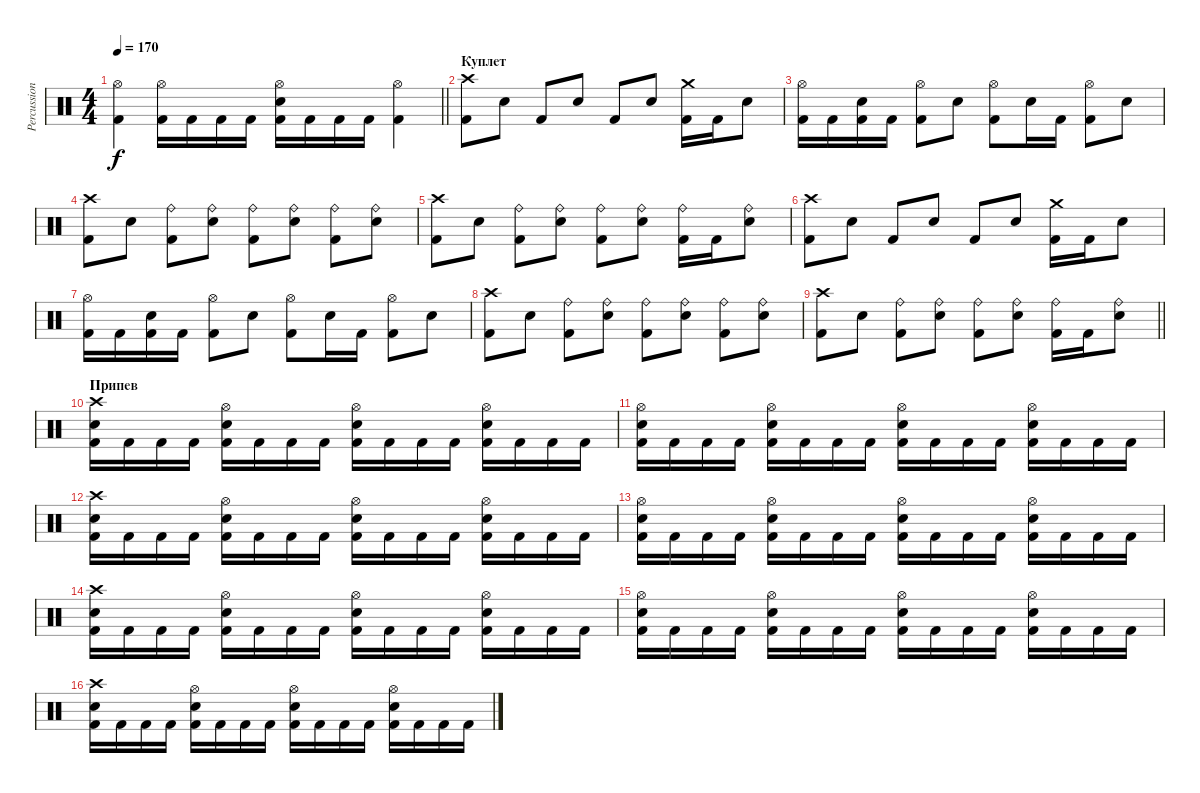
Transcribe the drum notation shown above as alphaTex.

\track ("Percussion" "Percussion") {instrument percussion}
\staff {score}
\articulation defaults
\ts (4 4)
\tempo 170
\clef neutral
\barLineRight lightlight
\ks c
("Hi-Hat (open)" "Kick (hit) 2").4{dy f} ("Hi-Hat (open)" "Kick (hit) 2").16 "Kick (hit) 2".16 "Kick (hit) 2".16 "Kick (hit) 2".16 ("Hi-Hat (open)" "Snare (hit) 2" "Kick (hit) 2").16 "Kick (hit) 2".16 "Kick (hit) 2".16 "Kick (hit) 2".16 ("Hi-Hat (open)" "Kick (hit) 2").4 |
\section ("" "Куплет")
("Crash high (hit)" "Kick (hit) 2").8 "Snare (hit) 2".8 "Kick (hit) 2".8 "Snare (hit) 2".8 "Kick (hit) 2".8 "Snare (hit) 2".8 ("Crash medium (hit)" "Kick (hit) 2").16 "Kick (hit) 2".16 "Snare (hit) 2".8 |
("Hi-Hat (open)" "Kick (hit) 2").16 "Kick (hit) 2".16 ("Snare (hit) 2" "Kick (hit) 2").16 "Kick (hit) 2".16 ("Hi-Hat (open)" "Kick (hit) 2").8 "Snare (hit) 2".8 ("Hi-Hat (open)" "Kick (hit) 2").8 "Snare (hit) 2".16 "Kick (hit) 2".16 ("Hi-Hat (open)" "Kick (hit) 2").8 "Snare (hit) 2".8 |
("Crash high (hit)" "Kick (hit) 2").8 "Snare (hit) 2".8 ("Ride (bell)" "Kick (hit) 2").8 ("Ride (bell)" "Snare (hit) 2").8 ("Ride (bell)" "Kick (hit) 2").8 ("Ride (bell)" "Snare (hit) 2").8 ("Ride (bell)" "Kick (hit) 2").8 ("Ride (bell)" "Snare (hit) 2").8 |
("Crash high (hit)" "Kick (hit) 2").8 "Snare (hit) 2".8 ("Ride (bell)" "Kick (hit) 2").8 ("Ride (bell)" "Snare (hit) 2").8 ("Ride (bell)" "Kick (hit) 2").8 ("Ride (bell)" "Snare (hit) 2").8 ("Ride (bell)" "Kick (hit) 2").16 "Kick (hit) 2".16 ("Ride (bell)" "Snare (hit) 2").8 |
("Crash high (hit)" "Kick (hit) 2").8 "Snare (hit) 2".8 "Kick (hit) 2".8 "Snare (hit) 2".8 "Kick (hit) 2".8 "Snare (hit) 2".8 ("Crash medium (hit)" "Kick (hit) 2").16 "Kick (hit) 2".16 "Snare (hit) 2".8 |
("Hi-Hat (open)" "Kick (hit) 2").16 "Kick (hit) 2".16 ("Snare (hit) 2" "Kick (hit) 2").16 "Kick (hit) 2".16 ("Hi-Hat (open)" "Kick (hit) 2").8 "Snare (hit) 2".8 ("Hi-Hat (open)" "Kick (hit) 2").8 "Snare (hit) 2".16 "Kick (hit) 2".16 ("Hi-Hat (open)" "Kick (hit) 2").8 "Snare (hit) 2".8 |
("Crash high (hit)" "Kick (hit) 2").8 "Snare (hit) 2".8 ("Ride (bell)" "Kick (hit) 2").8 ("Ride (bell)" "Snare (hit) 2").8 ("Ride (bell)" "Kick (hit) 2").8 ("Ride (bell)" "Snare (hit) 2").8 ("Ride (bell)" "Kick (hit) 2").8 ("Ride (bell)" "Snare (hit) 2").8 |
\barLineRight lightlight
("Crash high (hit)" "Kick (hit) 2").8 "Snare (hit) 2".8 ("Ride (bell)" "Kick (hit) 2").8 ("Ride (bell)" "Snare (hit) 2").8 ("Ride (bell)" "Kick (hit) 2").8 ("Ride (bell)" "Snare (hit) 2").8 ("Ride (bell)" "Kick (hit) 2").16 "Kick (hit) 2".16 ("Ride (bell)" "Snare (hit) 2").8 |
\section ("" "Припев")
("Crash high (hit)" "Snare (hit) 2" "Kick (hit) 2").16 "Kick (hit) 2".16 "Kick (hit) 2".16 "Kick (hit) 2".16 ("Hi-Hat (open)" "Snare (hit) 2" "Kick (hit) 2").16 "Kick (hit) 2".16 "Kick (hit) 2".16 "Kick (hit) 2".16 ("Hi-Hat (open)" "Snare (hit) 2" "Kick (hit) 2").16 "Kick (hit) 2".16 "Kick (hit) 2".16 "Kick (hit) 2".16 ("Hi-Hat (open)" "Snare (hit) 2" "Kick (hit) 2").16 "Kick (hit) 2".16 "Kick (hit) 2".16 "Kick (hit) 2".16 |
("Hi-Hat (open)" "Snare (hit) 2" "Kick (hit) 2").16 "Kick (hit) 2".16 "Kick (hit) 2".16 "Kick (hit) 2".16 ("Hi-Hat (open)" "Snare (hit) 2" "Kick (hit) 2").16 "Kick (hit) 2".16 "Kick (hit) 2".16 "Kick (hit) 2".16 ("Hi-Hat (open)" "Snare (hit) 2" "Kick (hit) 2").16 "Kick (hit) 2".16 "Kick (hit) 2".16 "Kick (hit) 2".16 ("Hi-Hat (open)" "Snare (hit) 2" "Kick (hit) 2").16 "Kick (hit) 2".16 "Kick (hit) 2".16 "Kick (hit) 2".16 |
("Crash high (hit)" "Snare (hit) 2" "Kick (hit) 2").16 "Kick (hit) 2".16 "Kick (hit) 2".16 "Kick (hit) 2".16 ("Hi-Hat (open)" "Snare (hit) 2" "Kick (hit) 2").16 "Kick (hit) 2".16 "Kick (hit) 2".16 "Kick (hit) 2".16 ("Hi-Hat (open)" "Snare (hit) 2" "Kick (hit) 2").16 "Kick (hit) 2".16 "Kick (hit) 2".16 "Kick (hit) 2".16 ("Hi-Hat (open)" "Snare (hit) 2" "Kick (hit) 2").16 "Kick (hit) 2".16 "Kick (hit) 2".16 "Kick (hit) 2".16 |
("Hi-Hat (open)" "Snare (hit) 2" "Kick (hit) 2").16 "Kick (hit) 2".16 "Kick (hit) 2".16 "Kick (hit) 2".16 ("Hi-Hat (open)" "Snare (hit) 2" "Kick (hit) 2").16 "Kick (hit) 2".16 "Kick (hit) 2".16 "Kick (hit) 2".16 ("Hi-Hat (open)" "Snare (hit) 2" "Kick (hit) 2").16 "Kick (hit) 2".16 "Kick (hit) 2".16 "Kick (hit) 2".16 ("Hi-Hat (open)" "Snare (hit) 2" "Kick (hit) 2").16 "Kick (hit) 2".16 "Kick (hit) 2".16 "Kick (hit) 2".16 |
("Crash high (hit)" "Snare (hit) 2" "Kick (hit) 2").16 "Kick (hit) 2".16 "Kick (hit) 2".16 "Kick (hit) 2".16 ("Hi-Hat (open)" "Snare (hit) 2" "Kick (hit) 2").16 "Kick (hit) 2".16 "Kick (hit) 2".16 "Kick (hit) 2".16 ("Hi-Hat (open)" "Snare (hit) 2" "Kick (hit) 2").16 "Kick (hit) 2".16 "Kick (hit) 2".16 "Kick (hit) 2".16 ("Hi-Hat (open)" "Snare (hit) 2" "Kick (hit) 2").16 "Kick (hit) 2".16 "Kick (hit) 2".16 "Kick (hit) 2".16 |
("Hi-Hat (open)" "Snare (hit) 2" "Kick (hit) 2").16 "Kick (hit) 2".16 "Kick (hit) 2".16 "Kick (hit) 2".16 ("Hi-Hat (open)" "Snare (hit) 2" "Kick (hit) 2").16 "Kick (hit) 2".16 "Kick (hit) 2".16 "Kick (hit) 2".16 ("Hi-Hat (open)" "Snare (hit) 2" "Kick (hit) 2").16 "Kick (hit) 2".16 "Kick (hit) 2".16 "Kick (hit) 2".16 ("Hi-Hat (open)" "Snare (hit) 2" "Kick (hit) 2").16 "Kick (hit) 2".16 "Kick (hit) 2".16 "Kick (hit) 2".16 |
("Crash high (hit)" "Snare (hit) 2" "Kick (hit) 2").16 "Kick (hit) 2".16 "Kick (hit) 2".16 "Kick (hit) 2".16 ("Hi-Hat (open)" "Snare (hit) 2" "Kick (hit) 2").16 "Kick (hit) 2".16 "Kick (hit) 2".16 "Kick (hit) 2".16 ("Hi-Hat (open)" "Snare (hit) 2" "Kick (hit) 2").16 "Kick (hit) 2".16 "Kick (hit) 2".16 "Kick (hit) 2".16 ("Hi-Hat (open)" "Snare (hit) 2" "Kick (hit) 2").16 "Kick (hit) 2".16 "Kick (hit) 2".16 "Kick (hit) 2".16
